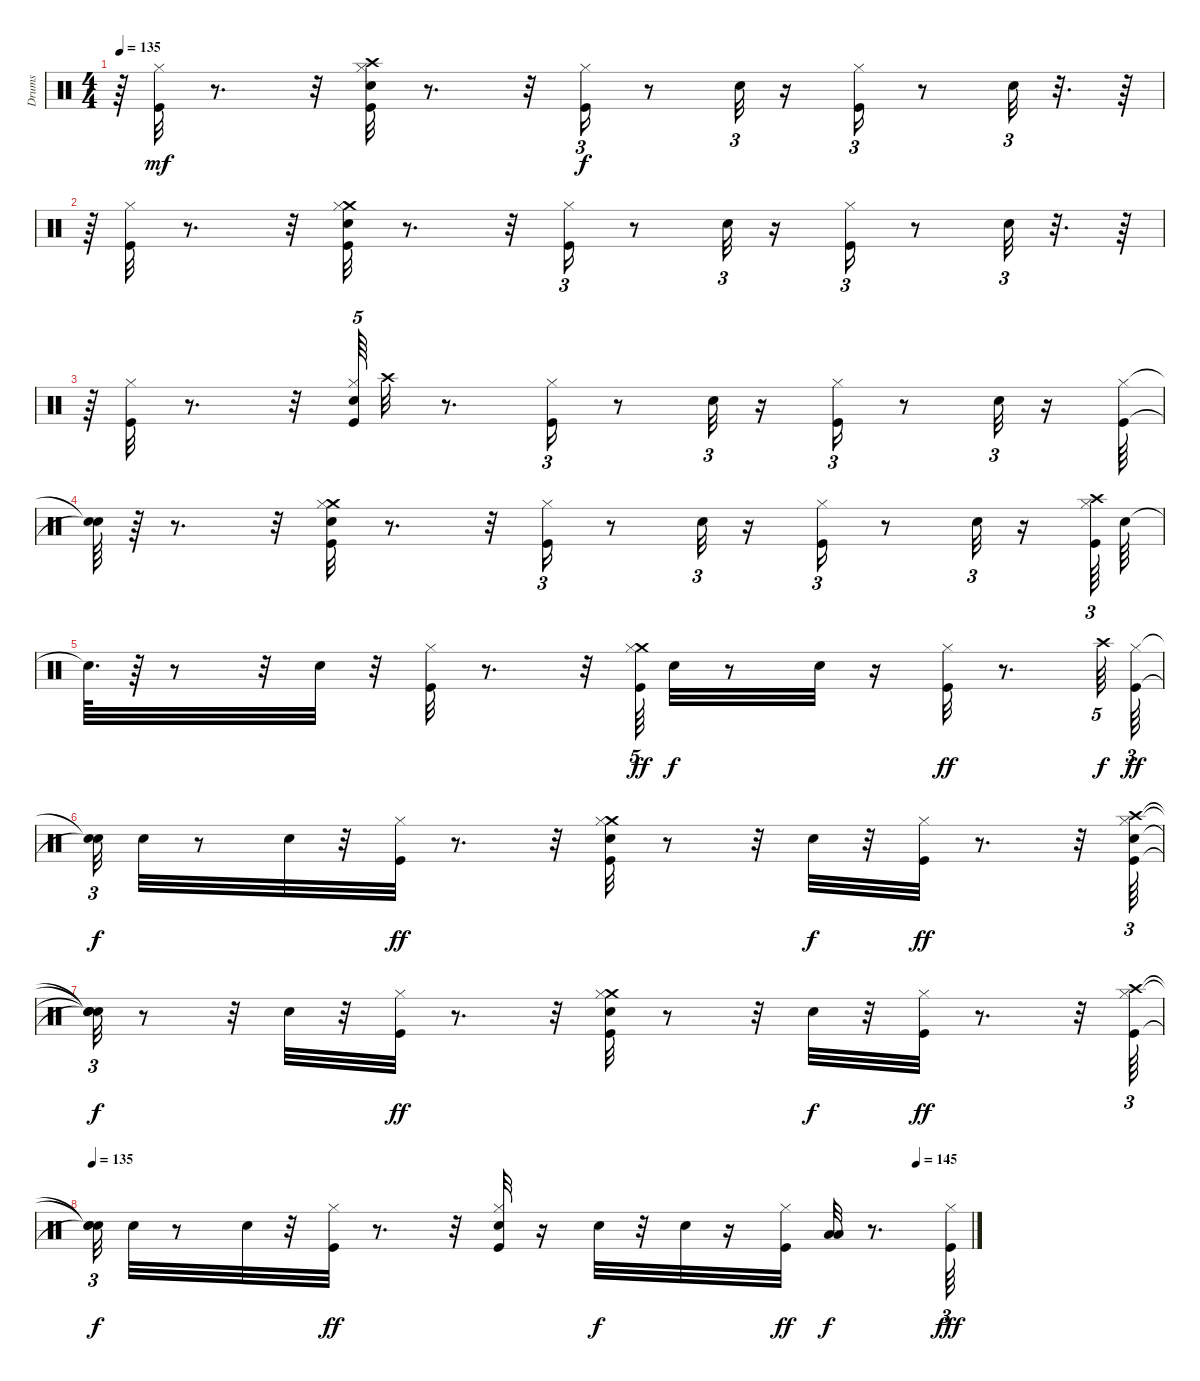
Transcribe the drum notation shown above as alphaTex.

\track ("Drums" "Drums") {instrument percussion}
\staff {score}
\articulation defaults
\ts (4 4)
\tempo 135
\clef neutral
\ks c
r.64{dy f} ("Kick (hit)" "Hi-Hat (closed)").32{dy mf} r.8{d} r.32 ("Electric Snare (hit)" "Kick (hit)" "Hi-Hat (closed)" "Crash high (hit)").32 r.8{d} r.32 ("Kick (hit)" "Hi-Hat (closed)").16{tu (3 2) dy f} r.8 "Electric Snare (hit)".32{tu (3 2)} r.16 ("Kick (hit)" "Hi-Hat (closed)").16{tu (3 2)} r.8 "Electric Snare (hit)".32{tu (3 2)} r.32{d} r.64 |
r.64 ("Kick (hit)" "Hi-Hat (closed)").32 r.8{d} r.32 ("Electric Snare (hit)" "Kick (hit)" "Crash medium (hit)" "Hi-Hat (closed)").32 r.8{d} r.32 ("Kick (hit)" "Hi-Hat (closed)").16{tu (3 2)} r.8 "Electric Snare (hit)".32{tu (3 2)} r.16 ("Kick (hit)" "Hi-Hat (closed)").16{tu (3 2)} r.8 "Electric Snare (hit)".32{tu (3 2)} r.32{d} r.64 |
r.64 ("Kick (hit)" "Hi-Hat (closed)").32 r.8{d} r.32 ("Electric Snare (hit)" "Kick (hit)" "Hi-Hat (closed)").64{tu (5 4)} "Crash high (hit)".32 r.8{d} ("Kick (hit)" "Hi-Hat (closed)").16{tu (3 2)} r.8 "Electric Snare (hit)".32{tu (3 2)} r.16 ("Kick (hit)" "Hi-Hat (closed)").16{tu (3 2)} r.8 "Electric Snare (hit)".32{tu (3 2)} r.16 ("Kick (hit)" "Hi-Hat (closed)").64 |
("Snare (hit)"{t} "Snare (hit)"{t}).64 r.64 r.8{d} r.32 ("Electric Snare (hit)" "Kick (hit)" "Crash medium (hit)" "Hi-Hat (closed)").32 r.8{d} r.32 ("Kick (hit)" "Hi-Hat (closed)").16{tu (3 2)} r.8 "Electric Snare (hit)".32{tu (3 2)} r.16 ("Kick (hit)" "Hi-Hat (closed)").16{tu (3 2)} r.8 "Electric Snare (hit)".32{tu (3 2)} r.16 ("Kick (hit)" "Crash high (hit)" "Hi-Hat (closed)").64{tu (3 2)} "Electric Snare (hit)".64 |
"Snare (hit)"{t}.64{d} r.64 r.8 r.32 "Electric Snare (hit)".32 r.32 ("Kick (hit)" "Hi-Hat (closed)").32 r.8{d} r.32 ("Kick (hit)" "Crash medium (hit)" "Hi-Hat (closed)").64{tu (5 4) dy ff} "Electric Snare (hit)".32{dy f} r.8 "Electric Snare (hit)".32 r.16 ("Kick (hit)" "Hi-Hat (closed)").32{dy ff} r.8{d} "Crash high (hit)".64{tu (5 4) dy f} ("Kick (hit)" "Hi-Hat (closed)").64{tu (3 2) dy ff} |
("Snare (hit)"{t} "Snare (hit)"{t}).32{tu (3 2) dy f} "Electric Snare (hit)".32 r.8 "Electric Snare (hit)".32 r.32 ("Kick (hit)" "Hi-Hat (closed)").32{dy ff} r.8{d} r.32 ("Electric Snare (hit)" "Kick (hit)" "Crash medium (hit)" "Hi-Hat (closed)").32 r.8 r.32 "Electric Snare (hit)".32{dy f} r.32 ("Kick (hit)" "Hi-Hat (closed)").32{dy ff} r.8{d} r.32 ("Crash high (hit)" "Electric Snare (hit)" "Kick (hit)" "Hi-Hat (closed)").64{tu (3 2)} |
("Snare (hit)"{t} "Snare (hit)"{t} "Snare (hit)"{t} "Snare (hit)"{t}).32{tu (3 2) dy f} r.8 r.32 "Electric Snare (hit)".32 r.32 ("Kick (hit)" "Hi-Hat (closed)").32{dy ff} r.8{d} r.32 ("Electric Snare (hit)" "Kick (hit)" "Crash medium (hit)" "Hi-Hat (closed)").32 r.8 r.32 "Electric Snare (hit)".32{dy f} r.32 ("Kick (hit)" "Hi-Hat (closed)").32{dy ff} r.8{d} r.32 ("Kick (hit)" "Hi-Hat (closed)" "Crash high (hit)").64{tu (3 2)} |
\tempo 135
\tempo (145 0.9375)
("Snare (hit)"{t} "Snare (hit)"{t} "Snare (hit)"{t}).32{tu (3 2) dy f} "Electric Snare (hit)".32 r.8 "Electric Snare (hit)".32 r.32 ("Kick (hit)" "Hi-Hat (closed)").32{dy ff} r.8{d} r.32 ("Electric Snare (hit)" "Kick (hit)" "Hi-Hat (closed)").32 r.16 "Electric Snare (hit)".32{dy f} r.32 "Electric Snare (hit)".32 r.16 ("Kick (hit)" "Hi-Hat (closed)").32{dy ff} ("Low Tom (hit)" "Low Floor Tom (hit)").32{dy f} r.8{d} ("Kick (hit)" "Hi-Hat (closed)").64{tu (3 2) dy fff}
